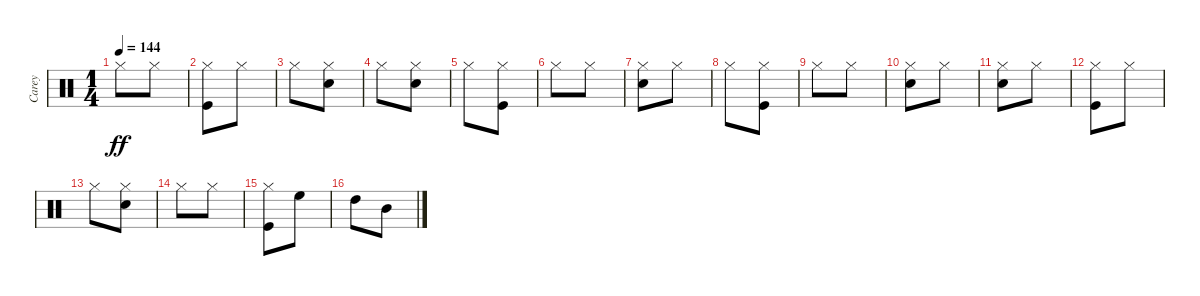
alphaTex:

\track ("Carey" "Carey") {instrument percussion}
\staff {score}
\articulation defaults
\ts (1 4)
\tempo 144
\clef neutral
\ks c "Hi-Hat (closed)".8{dy ff} "Hi-Hat (closed)".8
|
("Kick (hit)" "Hi-Hat (closed)").8 "Hi-Hat (closed)".8 |
"Hi-Hat (closed)".8 ("Snare (hit) 2" "Hi-Hat (closed)").8 |
"Hi-Hat (closed)".8 ("Snare (hit) 2" "Hi-Hat (closed)").8 |
"Hi-Hat (closed)".8 ("Kick (hit)" "Hi-Hat (closed)").8 |
"Hi-Hat (closed)".8 "Hi-Hat (closed)".8 |
("Snare (hit) 2" "Hi-Hat (closed)").8 "Hi-Hat (closed)".8 |
"Hi-Hat (closed)".8 ("Kick (hit)" "Hi-Hat (closed)").8 |
"Hi-Hat (closed)".8 "Hi-Hat (closed)".8 |
("Snare (hit) 2" "Hi-Hat (closed)").8 "Hi-Hat (closed)".8 |
("Snare (hit) 2" "Hi-Hat (closed)").8 "Hi-Hat (closed)".8 |
("Kick (hit)" "Hi-Hat (closed)").8 "Hi-Hat (closed)".8 |
"Hi-Hat (closed)".8 ("Snare (hit) 2" "Hi-Hat (closed)").8 |
"Hi-Hat (closed)".8 "Hi-Hat (closed)".8 |
("Kick (hit)" "Hi-Hat (closed)").8 "High Floor Tom (hit)".8 |
"High Tom (hit)".8 "Mid Tom (hit)".8
